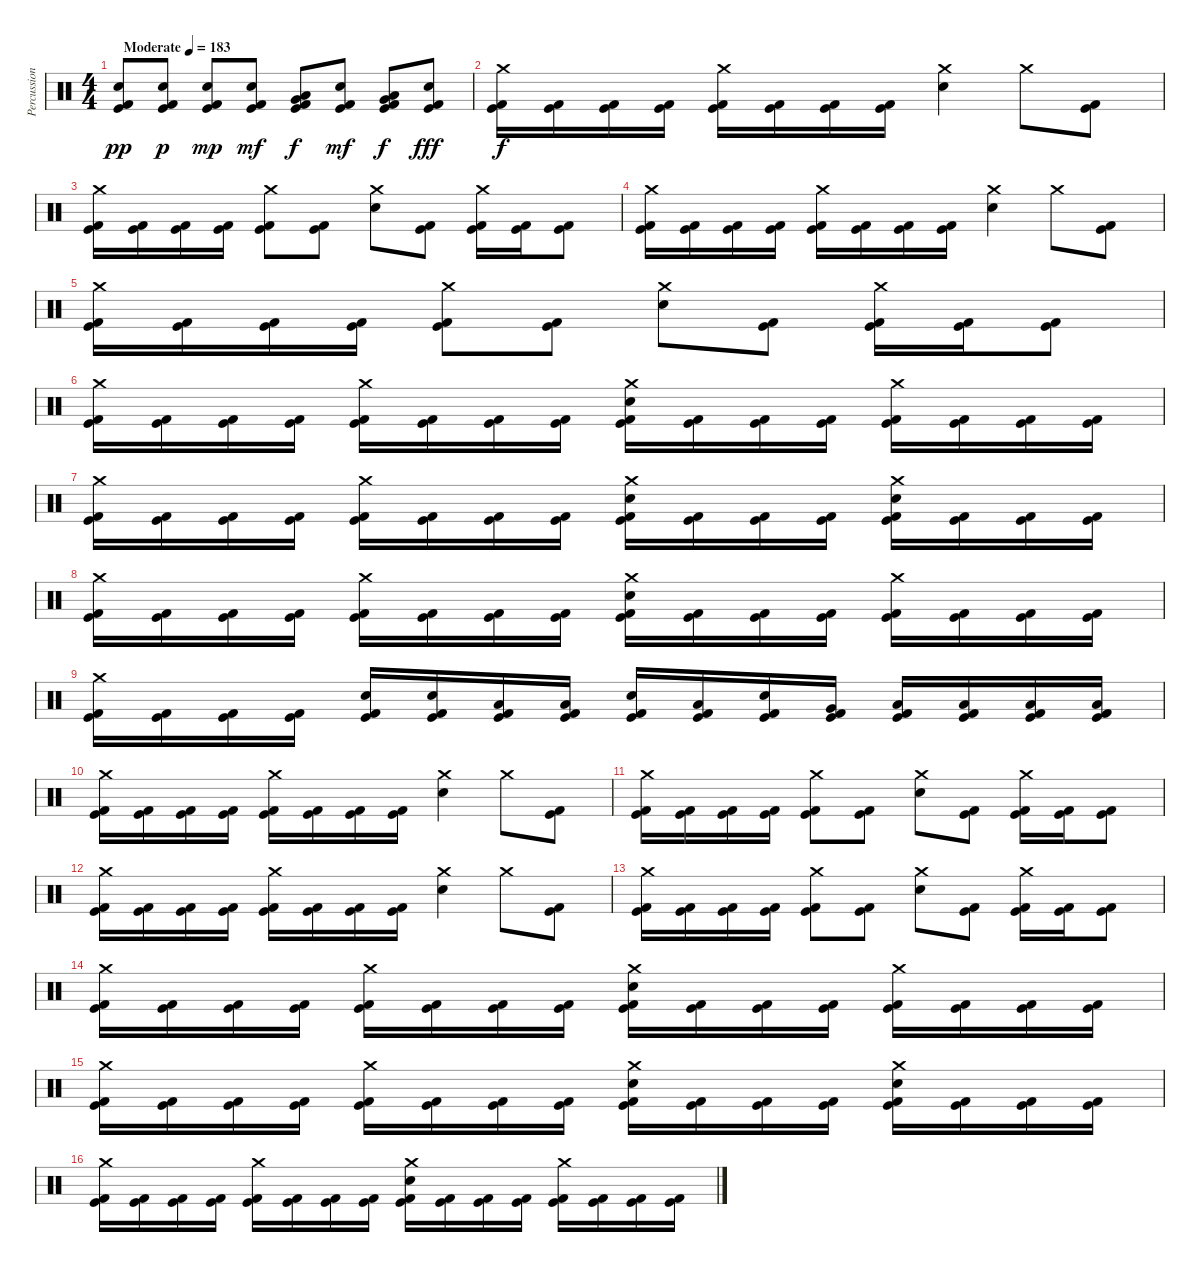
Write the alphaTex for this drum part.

\track ("Percussion" "Percussion") {instrument percussion}
\staff {score}
\articulation defaults
\ts (4 4)
\tempo (183 "Moderate")
\clef neutral
\ks c
("Electric Snare (hit)" "Kick (hit)" "Kick (hit) 2").8{dy pp} ("Electric Snare (hit)" "Kick (hit)" "Kick (hit) 2").8{dy p} ("Electric Snare (hit)" "Kick (hit)" "Kick (hit) 2").8{dy mp} ("Electric Snare (hit)" "Kick (hit)" "Kick (hit) 2").8{dy mf} ("Very Low Tom (hit)" "Low Floor Tom (hit)" "Kick (hit)" "Kick (hit) 2").8{dy f} ("Electric Snare (hit)" "Kick (hit)" "Kick (hit) 2").8{dy mf} ("Very Low Tom (hit)" "Low Tom (hit)" "Kick (hit)" "Kick (hit) 2").8{dy f} ("Electric Snare (hit)" "Kick (hit)" "Kick (hit) 2").8{dy fff} |
("Crash medium (hit)" "Kick (hit)" "Kick (hit) 2").16{dy f} ("Kick (hit)" "Kick (hit) 2").16 ("Kick (hit)" "Kick (hit) 2").16 ("Kick (hit)" "Kick (hit) 2").16 ("Crash medium (hit)" "Kick (hit)" "Kick (hit) 2").16 ("Kick (hit)" "Kick (hit) 2").16 ("Kick (hit)" "Kick (hit) 2").16 ("Kick (hit)" "Kick (hit) 2").16 ("Crash medium (hit)" "Electric Snare (hit)").4 "Crash medium (hit)".8 ("Kick (hit)" "Kick (hit) 2").8 |
("Crash medium (hit)" "Kick (hit)" "Kick (hit) 2").16 ("Kick (hit)" "Kick (hit) 2").16 ("Kick (hit)" "Kick (hit) 2").16 ("Kick (hit)" "Kick (hit) 2").16 ("Crash medium (hit)" "Kick (hit)" "Kick (hit) 2").8 ("Kick (hit)" "Kick (hit) 2").8 ("Crash medium (hit)" "Electric Snare (hit)").8 ("Kick (hit)" "Kick (hit) 2").8 ("Crash medium (hit)" "Kick (hit)" "Kick (hit) 2").16 ("Kick (hit)" "Kick (hit) 2").16 ("Kick (hit)" "Kick (hit) 2").8 |
("Crash medium (hit)" "Kick (hit)" "Kick (hit) 2").16 ("Kick (hit)" "Kick (hit) 2").16 ("Kick (hit)" "Kick (hit) 2").16 ("Kick (hit)" "Kick (hit) 2").16 ("Crash medium (hit)" "Kick (hit)" "Kick (hit) 2").16 ("Kick (hit)" "Kick (hit) 2").16 ("Kick (hit)" "Kick (hit) 2").16 ("Kick (hit)" "Kick (hit) 2").16 ("Crash medium (hit)" "Electric Snare (hit)").4 "Crash medium (hit)".8 ("Kick (hit)" "Kick (hit) 2").8 |
("Crash medium (hit)" "Kick (hit)" "Kick (hit) 2").16 ("Kick (hit)" "Kick (hit) 2").16 ("Kick (hit)" "Kick (hit) 2").16 ("Kick (hit)" "Kick (hit) 2").16 ("Crash medium (hit)" "Kick (hit)" "Kick (hit) 2").8 ("Kick (hit)" "Kick (hit) 2").8 ("Crash medium (hit)" "Electric Snare (hit)").8 ("Kick (hit)" "Kick (hit) 2").8 ("Crash medium (hit)" "Kick (hit)" "Kick (hit) 2").16 ("Kick (hit)" "Kick (hit) 2").16 ("Kick (hit)" "Kick (hit) 2").8 |
("Crash medium (hit)" "Kick (hit)" "Kick (hit) 2").16 ("Kick (hit)" "Kick (hit) 2").16 ("Kick (hit)" "Kick (hit) 2").16 ("Kick (hit)" "Kick (hit) 2").16 ("Crash medium (hit)" "Kick (hit)" "Kick (hit) 2").16 ("Kick (hit)" "Kick (hit) 2").16 ("Kick (hit)" "Kick (hit) 2").16 ("Kick (hit)" "Kick (hit) 2").16 ("Crash medium (hit)" "Electric Snare (hit)" "Kick (hit)" "Kick (hit) 2").16 ("Kick (hit)" "Kick (hit) 2").16 ("Kick (hit)" "Kick (hit) 2").16 ("Kick (hit)" "Kick (hit) 2").16 ("Crash medium (hit)" "Kick (hit)" "Kick (hit) 2").16 ("Kick (hit)" "Kick (hit) 2").16 ("Kick (hit)" "Kick (hit) 2").16 ("Kick (hit)" "Kick (hit) 2").16 |
("Crash medium (hit)" "Kick (hit)" "Kick (hit) 2").16 ("Kick (hit)" "Kick (hit) 2").16 ("Kick (hit)" "Kick (hit) 2").16 ("Kick (hit)" "Kick (hit) 2").16 ("Crash medium (hit)" "Kick (hit)" "Kick (hit) 2").16 ("Kick (hit)" "Kick (hit) 2").16 ("Kick (hit)" "Kick (hit) 2").16 ("Kick (hit)" "Kick (hit) 2").16 ("Crash medium (hit)" "Electric Snare (hit)" "Kick (hit)" "Kick (hit) 2").16 ("Kick (hit)" "Kick (hit) 2").16 ("Kick (hit)" "Kick (hit) 2").16 ("Kick (hit)" "Kick (hit) 2").16 ("Crash medium (hit)" "Electric Snare (hit)" "Kick (hit)" "Kick (hit) 2").16 ("Kick (hit)" "Kick (hit) 2").16 ("Kick (hit)" "Kick (hit) 2").16 ("Kick (hit)" "Kick (hit) 2").16 |
("Crash medium (hit)" "Kick (hit)" "Kick (hit) 2").16 ("Kick (hit)" "Kick (hit) 2").16 ("Kick (hit)" "Kick (hit) 2").16 ("Kick (hit)" "Kick (hit) 2").16 ("Crash medium (hit)" "Kick (hit)" "Kick (hit) 2").16 ("Kick (hit)" "Kick (hit) 2").16 ("Kick (hit)" "Kick (hit) 2").16 ("Kick (hit)" "Kick (hit) 2").16 ("Crash medium (hit)" "Electric Snare (hit)" "Kick (hit)" "Kick (hit) 2").16 ("Kick (hit)" "Kick (hit) 2").16 ("Kick (hit)" "Kick (hit) 2").16 ("Kick (hit)" "Kick (hit) 2").16 ("Crash medium (hit)" "Kick (hit)" "Kick (hit) 2").16 ("Kick (hit)" "Kick (hit) 2").16 ("Kick (hit)" "Kick (hit) 2").16 ("Kick (hit)" "Kick (hit) 2").16 |
("Crash medium (hit)" "Kick (hit)" "Kick (hit) 2").16 ("Kick (hit)" "Kick (hit) 2").16 ("Kick (hit)" "Kick (hit) 2").16 ("Kick (hit)" "Kick (hit) 2").16 ("Electric Snare (hit)" "Kick (hit)" "Kick (hit) 2").16 ("Electric Snare (hit)" "Kick (hit)" "Kick (hit) 2").16 ("Low Tom (hit)" "Kick (hit)" "Kick (hit) 2").16 ("Low Tom (hit)" "Kick (hit)" "Kick (hit) 2").16 ("Electric Snare (hit)" "Kick (hit)" "Kick (hit) 2").16 ("Low Tom (hit)" "Kick (hit)" "Kick (hit) 2").16 ("Electric Snare (hit)" "Kick (hit)" "Kick (hit) 2").16 ("Very Low Tom (hit)" "Kick (hit)" "Kick (hit) 2").16 ("Low Tom (hit)" "Kick (hit)" "Kick (hit) 2").16 ("Low Tom (hit)" "Kick (hit)" "Kick (hit) 2").16 ("Low Tom (hit)" "Kick (hit)" "Kick (hit) 2").16 ("Low Tom (hit)" "Kick (hit)" "Kick (hit) 2").16 |
("Crash medium (hit)" "Kick (hit)" "Kick (hit) 2").16 ("Kick (hit)" "Kick (hit) 2").16 ("Kick (hit)" "Kick (hit) 2").16 ("Kick (hit)" "Kick (hit) 2").16 ("Crash medium (hit)" "Kick (hit)" "Kick (hit) 2").16 ("Kick (hit)" "Kick (hit) 2").16 ("Kick (hit)" "Kick (hit) 2").16 ("Kick (hit)" "Kick (hit) 2").16 ("Crash medium (hit)" "Electric Snare (hit)").4 "Crash medium (hit)".8 ("Kick (hit)" "Kick (hit) 2").8 |
("Crash medium (hit)" "Kick (hit)" "Kick (hit) 2").16 ("Kick (hit)" "Kick (hit) 2").16 ("Kick (hit)" "Kick (hit) 2").16 ("Kick (hit)" "Kick (hit) 2").16 ("Crash medium (hit)" "Kick (hit)" "Kick (hit) 2").8 ("Kick (hit)" "Kick (hit) 2").8 ("Crash medium (hit)" "Electric Snare (hit)").8 ("Kick (hit)" "Kick (hit) 2").8 ("Crash medium (hit)" "Kick (hit)" "Kick (hit) 2").16 ("Kick (hit)" "Kick (hit) 2").16 ("Kick (hit)" "Kick (hit) 2").8 |
("Crash medium (hit)" "Kick (hit)" "Kick (hit) 2").16 ("Kick (hit)" "Kick (hit) 2").16 ("Kick (hit)" "Kick (hit) 2").16 ("Kick (hit)" "Kick (hit) 2").16 ("Crash medium (hit)" "Kick (hit)" "Kick (hit) 2").16 ("Kick (hit)" "Kick (hit) 2").16 ("Kick (hit)" "Kick (hit) 2").16 ("Kick (hit)" "Kick (hit) 2").16 ("Crash medium (hit)" "Electric Snare (hit)").4 "Crash medium (hit)".8 ("Kick (hit)" "Kick (hit) 2").8 |
("Crash medium (hit)" "Kick (hit)" "Kick (hit) 2").16 ("Kick (hit)" "Kick (hit) 2").16 ("Kick (hit)" "Kick (hit) 2").16 ("Kick (hit)" "Kick (hit) 2").16 ("Crash medium (hit)" "Kick (hit)" "Kick (hit) 2").8 ("Kick (hit)" "Kick (hit) 2").8 ("Crash medium (hit)" "Electric Snare (hit)").8 ("Kick (hit)" "Kick (hit) 2").8 ("Crash medium (hit)" "Kick (hit)" "Kick (hit) 2").16 ("Kick (hit)" "Kick (hit) 2").16 ("Kick (hit)" "Kick (hit) 2").8 |
("Crash medium (hit)" "Kick (hit)" "Kick (hit) 2").16 ("Kick (hit)" "Kick (hit) 2").16 ("Kick (hit)" "Kick (hit) 2").16 ("Kick (hit)" "Kick (hit) 2").16 ("Crash medium (hit)" "Kick (hit)" "Kick (hit) 2").16 ("Kick (hit)" "Kick (hit) 2").16 ("Kick (hit)" "Kick (hit) 2").16 ("Kick (hit)" "Kick (hit) 2").16 ("Crash medium (hit)" "Electric Snare (hit)" "Kick (hit)" "Kick (hit) 2").16 ("Kick (hit)" "Kick (hit) 2").16 ("Kick (hit)" "Kick (hit) 2").16 ("Kick (hit)" "Kick (hit) 2").16 ("Crash medium (hit)" "Kick (hit)" "Kick (hit) 2").16 ("Kick (hit)" "Kick (hit) 2").16 ("Kick (hit)" "Kick (hit) 2").16 ("Kick (hit)" "Kick (hit) 2").16 |
("Crash medium (hit)" "Kick (hit)" "Kick (hit) 2").16 ("Kick (hit)" "Kick (hit) 2").16 ("Kick (hit)" "Kick (hit) 2").16 ("Kick (hit)" "Kick (hit) 2").16 ("Crash medium (hit)" "Kick (hit)" "Kick (hit) 2").16 ("Kick (hit)" "Kick (hit) 2").16 ("Kick (hit)" "Kick (hit) 2").16 ("Kick (hit)" "Kick (hit) 2").16 ("Crash medium (hit)" "Electric Snare (hit)" "Kick (hit)" "Kick (hit) 2").16 ("Kick (hit)" "Kick (hit) 2").16 ("Kick (hit)" "Kick (hit) 2").16 ("Kick (hit)" "Kick (hit) 2").16 ("Crash medium (hit)" "Electric Snare (hit)" "Kick (hit)" "Kick (hit) 2").16 ("Kick (hit)" "Kick (hit) 2").16 ("Kick (hit)" "Kick (hit) 2").16 ("Kick (hit)" "Kick (hit) 2").16 |
("Crash medium (hit)" "Kick (hit)" "Kick (hit) 2").16 ("Kick (hit)" "Kick (hit) 2").16 ("Kick (hit)" "Kick (hit) 2").16 ("Kick (hit)" "Kick (hit) 2").16 ("Crash medium (hit)" "Kick (hit)" "Kick (hit) 2").16 ("Kick (hit)" "Kick (hit) 2").16 ("Kick (hit)" "Kick (hit) 2").16 ("Kick (hit)" "Kick (hit) 2").16 ("Crash medium (hit)" "Electric Snare (hit)" "Kick (hit)" "Kick (hit) 2").16 ("Kick (hit)" "Kick (hit) 2").16 ("Kick (hit)" "Kick (hit) 2").16 ("Kick (hit)" "Kick (hit) 2").16 ("Crash medium (hit)" "Kick (hit)" "Kick (hit) 2").16 ("Kick (hit)" "Kick (hit) 2").16 ("Kick (hit)" "Kick (hit) 2").16 ("Kick (hit)" "Kick (hit) 2").16
